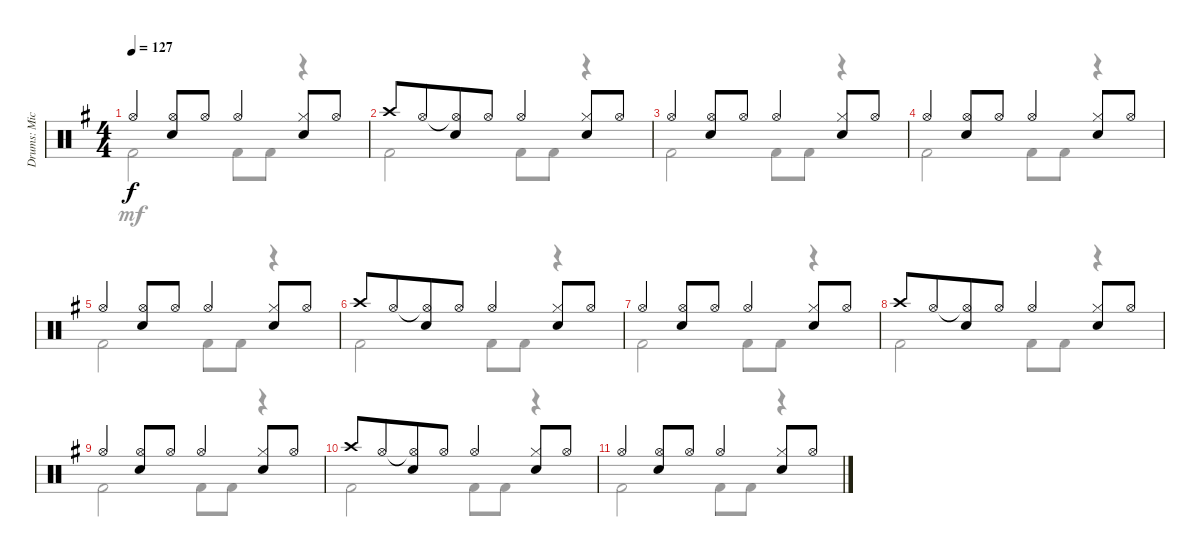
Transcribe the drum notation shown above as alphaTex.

\track ("Drums: Mick" "Drums: Mic") {instrument percussion}
\staff {score}
\articulation defaults
\voice
\ts (4 4)
\tempo 127
\clef neutral
\ks g "Hi-Hat (open)".4{dy f beam merge}
("Hi-Hat (open)" "Snare (hit) 2").8 "Hi-Hat (open)".8 "Hi-Hat (open)".4{beam merge} ("Hi-Hat (closed)" "Snare (hit) 2").8 "Hi-Hat (open)".8 |
"Crash high (hit)".8 "Hi-Hat (open)".8{beam merge} ("Hi-Hat (open)"{t} "Snare (hit) 2").8 "Hi-Hat (open)".8 "Hi-Hat (open)".4{beam merge} ("Hi-Hat (closed)" "Snare (hit) 2").8 "Hi-Hat (open)".8 |
"Hi-Hat (open)".4{beam merge} ("Hi-Hat (open)" "Snare (hit) 2").8 "Hi-Hat (open)".8 "Hi-Hat (open)".4{beam merge} ("Hi-Hat (closed)" "Snare (hit) 2").8 "Hi-Hat (open)".8 |
"Hi-Hat (open)".4{beam merge} ("Hi-Hat (open)" "Snare (hit) 2").8 "Hi-Hat (open)".8 "Hi-Hat (open)".4{beam merge} ("Hi-Hat (closed)" "Snare (hit) 2").8 "Hi-Hat (open)".8 |
"Hi-Hat (open)".4{beam merge} ("Hi-Hat (open)" "Snare (hit) 2").8 "Hi-Hat (open)".8 "Hi-Hat (open)".4{beam merge} ("Hi-Hat (closed)" "Snare (hit) 2").8 "Hi-Hat (open)".8 |
"Crash high (hit)".8 "Hi-Hat (open)".8{beam merge} ("Hi-Hat (open)"{t} "Snare (hit) 2").8 "Hi-Hat (open)".8 "Hi-Hat (open)".4{beam merge} ("Hi-Hat (closed)" "Snare (hit) 2").8 "Hi-Hat (open)".8 |
"Hi-Hat (open)".4{beam merge} ("Hi-Hat (open)" "Snare (hit) 2").8 "Hi-Hat (open)".8 "Hi-Hat (open)".4{beam merge} ("Hi-Hat (closed)" "Snare (hit) 2").8 "Hi-Hat (open)".8 |
"Crash high (hit)".8 "Hi-Hat (open)".8{beam merge} ("Hi-Hat (open)"{t} "Snare (hit) 2").8 "Hi-Hat (open)".8 "Hi-Hat (open)".4{beam merge} ("Hi-Hat (closed)" "Snare (hit) 2").8 "Hi-Hat (open)".8 |
"Hi-Hat (open)".4{beam merge} ("Hi-Hat (open)" "Snare (hit) 2").8 "Hi-Hat (open)".8 "Hi-Hat (open)".4{beam merge} ("Hi-Hat (closed)" "Snare (hit) 2").8 "Hi-Hat (open)".8 |
"Crash high (hit)".8 "Hi-Hat (open)".8{beam merge} ("Hi-Hat (open)"{t} "Snare (hit) 2").8 "Hi-Hat (open)".8 "Hi-Hat (open)".4{beam merge} ("Hi-Hat (closed)" "Snare (hit) 2").8 "Hi-Hat (open)".8 |
"Hi-Hat (open)".4{beam merge} ("Hi-Hat (open)" "Snare (hit) 2").8 "Hi-Hat (open)".8 "Hi-Hat (open)".4{beam merge} ("Hi-Hat (closed)" "Snare (hit) 2").8 "Hi-Hat (open)".8
\voice
\clef neutral
\ottava regular
\simile none
\ks g "Kick (hit) 2".2{dy mf} "Kick (hit) 2".8 "Kick (hit) 2".8
r.4 |
"Kick (hit) 2".2 "Kick (hit) 2".8 "Kick (hit) 2".8 r.4 |
"Kick (hit) 2".2 "Kick (hit) 2".8 "Kick (hit) 2".8 r.4 |
"Kick (hit) 2".2 "Kick (hit) 2".8 "Kick (hit) 2".8 r.4 |
"Kick (hit) 2".2 "Kick (hit) 2".8 "Kick (hit) 2".8 r.4 |
"Kick (hit) 2".2 "Kick (hit) 2".8 "Kick (hit) 2".8 r.4 |
"Kick (hit) 2".2 "Kick (hit) 2".8 "Kick (hit) 2".8 r.4 |
"Kick (hit) 2".2 "Kick (hit) 2".8 "Kick (hit) 2".8 r.4 |
"Kick (hit) 2".2 "Kick (hit) 2".8 "Kick (hit) 2".8 r.4 |
"Kick (hit) 2".2 "Kick (hit) 2".8 "Kick (hit) 2".8 r.4 |
"Kick (hit) 2".2 "Kick (hit) 2".8 "Kick (hit) 2".8 r.4
